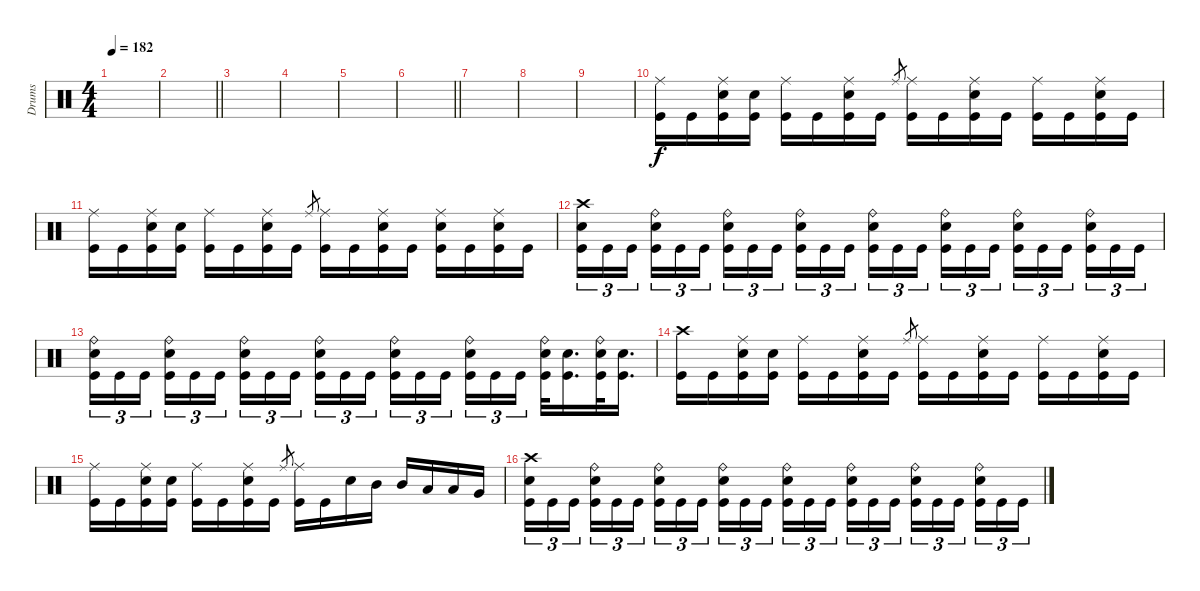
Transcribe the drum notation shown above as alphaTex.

\track ("Drums" "Drums") {instrument percussion}
\staff
\articulation defaults
\ts (4 4)
\tempo 182
\clef neutral
\ks c
|
\barLineRight lightlight
|
|
|
|
\barLineRight lightlight
|
|
|
|
("Ride (middle)" "Kick (hit)").16 "Kick (hit)".16 ("Ride (middle)" "Electric Snare (hit)" "Kick (hit)").16 ("Electric Snare (hit)" "Kick (hit)").16 ("Ride (middle)" "Kick (hit)").16 "Kick (hit)".16 ("Ride (middle)" "Electric Snare (hit)" "Kick (hit)").16 "Kick (hit)".16 "Ride (middle)".8{gr} ("Ride (middle)" "Kick (hit)").16 "Kick (hit)".16 ("Ride (middle)" "Electric Snare (hit)" "Kick (hit)").16 "Kick (hit)".16 ("Ride (middle)" "Kick (hit)").16 "Kick (hit)".16 ("Ride (middle)" "Electric Snare (hit)" "Kick (hit)").16 "Kick (hit)".16 |
("Ride (middle)" "Kick (hit)").16 "Kick (hit)".16 ("Ride (middle)" "Electric Snare (hit)" "Kick (hit)").16 ("Electric Snare (hit)" "Kick (hit)").16 ("Ride (middle)" "Kick (hit)").16 "Kick (hit)".16 ("Ride (middle)" "Electric Snare (hit)" "Kick (hit)").16 "Kick (hit)".16 "Ride (middle)".8{gr} ("Ride (middle)" "Kick (hit)").16 "Kick (hit)".16 ("Ride (middle)" "Electric Snare (hit)" "Kick (hit)").16 "Kick (hit)".16 ("Ride (middle)" "Electric Snare (hit)" "Kick (hit)").16 "Kick (hit)".16 ("Ride (middle)" "Electric Snare (hit)" "Kick (hit)").16 "Kick (hit)".16 |
("Crash high (hit)" "Electric Snare (hit)" "Kick (hit)").16{tu (3 2)} "Kick (hit)".16{tu (3 2)} "Kick (hit)".16{tu (3 2) beam splitsecondary} ("Ride (bell)" "Electric Snare (hit)" "Kick (hit)").16{tu (3 2)} "Kick (hit)".16{tu (3 2)} "Kick (hit)".16{tu (3 2)} ("Ride (bell)" "Electric Snare (hit)" "Kick (hit)").16{tu (3 2)} "Kick (hit)".16{tu (3 2)} "Kick (hit)".16{tu (3 2) beam splitsecondary} ("Ride (bell)" "Electric Snare (hit)" "Kick (hit)").16{tu (3 2)} "Kick (hit)".16{tu (3 2)} "Kick (hit)".16{tu (3 2)} ("Ride (bell)" "Electric Snare (hit)" "Kick (hit)").16{tu (3 2)} "Kick (hit)".16{tu (3 2)} "Kick (hit)".16{tu (3 2) beam splitsecondary} ("Ride (bell)" "Electric Snare (hit)" "Kick (hit)").16{tu (3 2)} "Kick (hit)".16{tu (3 2)} "Kick (hit)".16{tu (3 2)} ("Ride (bell)" "Electric Snare (hit)" "Kick (hit)").16{tu (3 2)} "Kick (hit)".16{tu (3 2)} "Kick (hit)".16{tu (3 2) beam splitsecondary} ("Ride (bell)" "Electric Snare (hit)" "Kick (hit)").16{tu (3 2)} "Kick (hit)".16{tu (3 2)} "Kick (hit)".16{tu (3 2)} |
("Ride (bell)" "Electric Snare (hit)" "Kick (hit)").16{tu (3 2)} "Kick (hit)".16{tu (3 2)} "Kick (hit)".16{tu (3 2) beam splitsecondary} ("Ride (bell)" "Electric Snare (hit)" "Kick (hit)").16{tu (3 2)} "Kick (hit)".16{tu (3 2)} "Kick (hit)".16{tu (3 2)} ("Ride (bell)" "Electric Snare (hit)" "Kick (hit)").16{tu (3 2)} "Kick (hit)".16{tu (3 2)} "Kick (hit)".16{tu (3 2) beam splitsecondary} ("Ride (bell)" "Electric Snare (hit)" "Kick (hit)").16{tu (3 2)} "Kick (hit)".16{tu (3 2)} "Kick (hit)".16{tu (3 2)} ("Ride (bell)" "Electric Snare (hit)" "Kick (hit)").16{tu (3 2)} "Kick (hit)".16{tu (3 2)} "Kick (hit)".16{tu (3 2) beam splitsecondary} ("Ride (bell)" "Electric Snare (hit)" "Kick (hit)").16{tu (3 2)} "Kick (hit)".16{tu (3 2)} "Kick (hit)".16{tu (3 2)} ("Ride (bell)" "Electric Snare (hit)" "Kick (hit)").32 ("Electric Snare (hit)" "Kick (hit)").16{d} ("Ride (bell)" "Electric Snare (hit)" "Kick (hit)").32 ("Electric Snare (hit)" "Kick (hit)").16{d} |
("Crash high (hit)" "Kick (hit)").16 "Kick (hit)".16 ("Ride (middle)" "Electric Snare (hit)" "Kick (hit)").16 ("Electric Snare (hit)" "Kick (hit)").16 ("Ride (middle)" "Kick (hit)").16 "Kick (hit)".16 ("Ride (middle)" "Electric Snare (hit)" "Kick (hit)").16 "Kick (hit)".16 "Ride (middle)".8{gr} ("Ride (middle)" "Kick (hit)").16 "Kick (hit)".16 ("Ride (middle)" "Electric Snare (hit)" "Kick (hit)").16 "Kick (hit)".16 ("Ride (middle)" "Kick (hit)").16 "Kick (hit)".16 ("Ride (middle)" "Electric Snare (hit)" "Kick (hit)").16 "Kick (hit)".16 |
("Ride (middle)" "Kick (hit)").16 "Kick (hit)".16 ("Ride (middle)" "Electric Snare (hit)" "Kick (hit)").16 ("Electric Snare (hit)" "Kick (hit)").16 ("Ride (middle)" "Kick (hit)").16 "Kick (hit)".16 ("Ride (middle)" "Electric Snare (hit)" "Kick (hit)").16 "Kick (hit)".16 "Ride (middle)".8{gr} ("Ride (middle)" "Kick (hit)").16 "Kick (hit)".16 "Electric Snare (hit)".16 "Mid Tom (hit)".16 "Mid Tom (hit)".16 "Low Tom (hit)".16 "Low Tom (hit)".16 "Very Low Tom (hit)".16 |
("Crash high (hit)" "Electric Snare (hit)" "Kick (hit)").16{tu (3 2)} "Kick (hit)".16{tu (3 2)} "Kick (hit)".16{tu (3 2) beam splitsecondary} ("Ride (bell)" "Electric Snare (hit)" "Kick (hit)").16{tu (3 2)} "Kick (hit)".16{tu (3 2)} "Kick (hit)".16{tu (3 2)} ("Ride (bell)" "Electric Snare (hit)" "Kick (hit)").16{tu (3 2)} "Kick (hit)".16{tu (3 2)} "Kick (hit)".16{tu (3 2) beam splitsecondary} ("Ride (bell)" "Electric Snare (hit)" "Kick (hit)").16{tu (3 2)} "Kick (hit)".16{tu (3 2)} "Kick (hit)".16{tu (3 2)} ("Ride (bell)" "Electric Snare (hit)" "Kick (hit)").16{tu (3 2)} "Kick (hit)".16{tu (3 2)} "Kick (hit)".16{tu (3 2) beam splitsecondary} ("Ride (bell)" "Electric Snare (hit)" "Kick (hit)").16{tu (3 2)} "Kick (hit)".16{tu (3 2)} "Kick (hit)".16{tu (3 2)} ("Ride (bell)" "Electric Snare (hit)" "Kick (hit)").16{tu (3 2)} "Kick (hit)".16{tu (3 2)} "Kick (hit)".16{tu (3 2) beam splitsecondary} ("Ride (bell)" "Electric Snare (hit)" "Kick (hit)").16{tu (3 2)} "Kick (hit)".16{tu (3 2)} "Kick (hit)".16{tu (3 2)}
